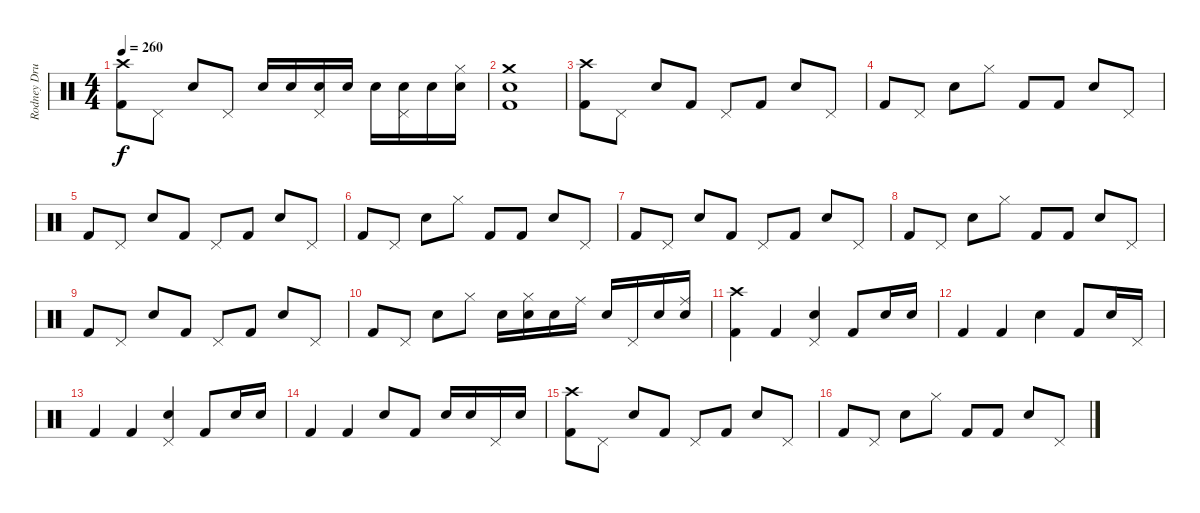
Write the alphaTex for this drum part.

\track ("Rodney Drums" "Rodney Dru") {instrument percussion}
\staff {score}
\articulation defaults
\ts (4 4)
\tempo 260
\clef neutral
\ks c
("Crash high (hit)" "Kick (hit) 2").8{dy f} "Pedal Hi-Hat (hit)".8 "Electric Snare (hit)".8 "Pedal Hi-Hat (hit)".8 "Electric Snare (hit)".16 "Electric Snare (hit)".16 ("Pedal Hi-Hat (hit)" "Electric Snare (hit)").16 "Electric Snare (hit)".16 "Electric Snare (hit)".16 ("Pedal Hi-Hat (hit)" "Electric Snare (hit)").16 "Electric Snare (hit)".16 ("Hi-Hat (closed)" "Electric Snare (hit)").16 |
("Crash medium (hit)" "Electric Snare (hit)" "Kick (hit) 2").1 |
("Crash high (hit)" "Kick (hit) 2").8 "Pedal Hi-Hat (hit)".8 "Electric Snare (hit)".8 "Kick (hit) 2".8 "Pedal Hi-Hat (hit)".8 "Kick (hit) 2".8 "Electric Snare (hit)".8 "Pedal Hi-Hat (hit)".8 |
"Kick (hit) 2".8 "Pedal Hi-Hat (hit)".8 "Electric Snare (hit)".8 "Hi-Hat (closed)".8 "Kick (hit) 2".8 "Kick (hit) 2".8 "Electric Snare (hit)".8 "Pedal Hi-Hat (hit)".8 |
"Kick (hit) 2".8 "Pedal Hi-Hat (hit)".8 "Electric Snare (hit)".8 "Kick (hit) 2".8 "Pedal Hi-Hat (hit)".8 "Kick (hit) 2".8 "Electric Snare (hit)".8 "Pedal Hi-Hat (hit)".8 |
"Kick (hit) 2".8 "Pedal Hi-Hat (hit)".8 "Electric Snare (hit)".8 "Hi-Hat (closed)".8 "Kick (hit) 2".8 "Kick (hit) 2".8 "Electric Snare (hit)".8 "Pedal Hi-Hat (hit)".8 |
"Kick (hit) 2".8 "Pedal Hi-Hat (hit)".8 "Electric Snare (hit)".8 "Kick (hit) 2".8 "Pedal Hi-Hat (hit)".8 "Kick (hit) 2".8 "Electric Snare (hit)".8 "Pedal Hi-Hat (hit)".8 |
"Kick (hit) 2".8 "Pedal Hi-Hat (hit)".8 "Electric Snare (hit)".8 "Hi-Hat (closed)".8 "Kick (hit) 2".8 "Kick (hit) 2".8 "Electric Snare (hit)".8 "Pedal Hi-Hat (hit)".8 |
"Kick (hit) 2".8 "Pedal Hi-Hat (hit)".8 "Electric Snare (hit)".8 "Kick (hit) 2".8 "Pedal Hi-Hat (hit)".8 "Kick (hit) 2".8 "Electric Snare (hit)".8 "Pedal Hi-Hat (hit)".8 |
"Kick (hit) 2".8 "Pedal Hi-Hat (hit)".8 "Electric Snare (hit)".8 "Hi-Hat (closed)".8 "Electric Snare (hit)".16 ("Hi-Hat (closed)" "Electric Snare (hit)").16 "Electric Snare (hit)".16 "Ride (middle)".16 "Electric Snare (hit)".16 "Pedal Hi-Hat (hit)".16 "Electric Snare (hit)".16 ("Electric Snare (hit)" "Ride (middle)").16 |
("Crash high (hit)" "Kick (hit) 2").4 "Kick (hit) 2".4 ("Pedal Hi-Hat (hit)" "Electric Snare (hit)").4 "Kick (hit) 2".8 "Electric Snare (hit)".16 "Electric Snare (hit)".16 |
"Kick (hit) 2".4 "Kick (hit) 2".4 "Electric Snare (hit)".4 "Kick (hit) 2".8 "Electric Snare (hit)".16 "Pedal Hi-Hat (hit)".16 |
"Kick (hit) 2".4 "Kick (hit) 2".4 ("Pedal Hi-Hat (hit)" "Electric Snare (hit)").4 "Kick (hit) 2".8 "Electric Snare (hit)".16 "Electric Snare (hit)".16 |
"Kick (hit) 2".4 "Kick (hit) 2".4 "Electric Snare (hit)".8 "Kick (hit) 2".8 "Electric Snare (hit)".16 "Electric Snare (hit)".16 "Pedal Hi-Hat (hit)".16 "Electric Snare (hit)".16 |
("Crash high (hit)" "Kick (hit) 2").8 "Pedal Hi-Hat (hit)".8 "Electric Snare (hit)".8 "Kick (hit) 2".8 "Pedal Hi-Hat (hit)".8 "Kick (hit) 2".8 "Electric Snare (hit)".8 "Pedal Hi-Hat (hit)".8 |
"Kick (hit) 2".8 "Pedal Hi-Hat (hit)".8 "Electric Snare (hit)".8 "Hi-Hat (closed)".8 "Kick (hit) 2".8 "Kick (hit) 2".8 "Electric Snare (hit)".8 "Pedal Hi-Hat (hit)".8
